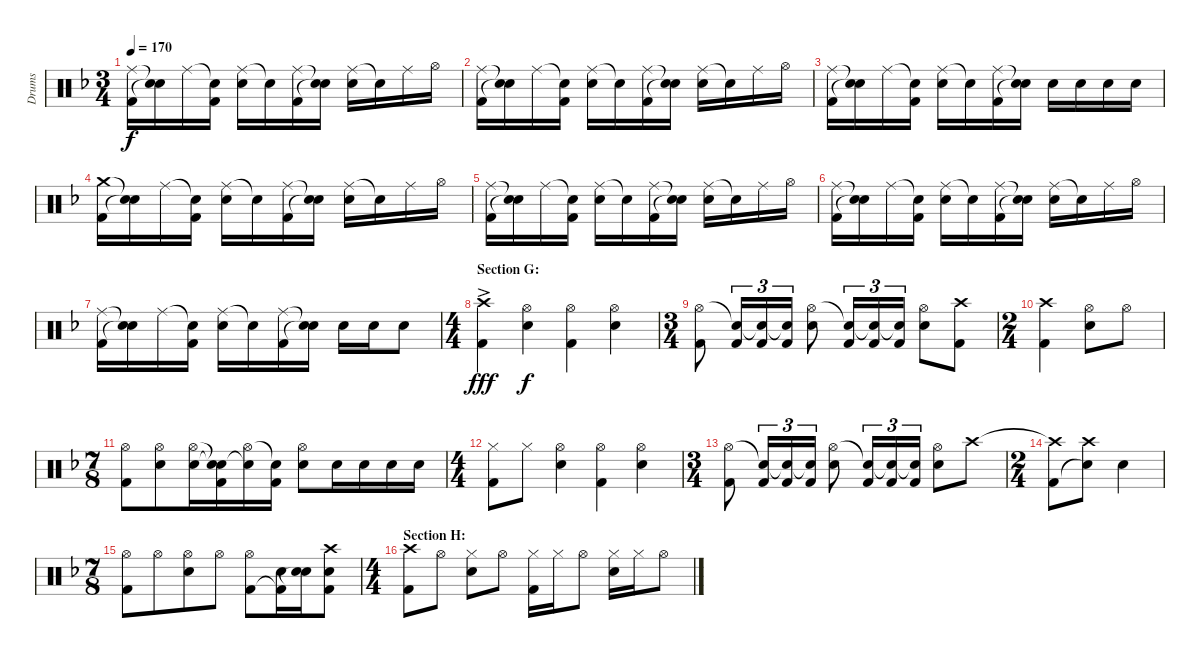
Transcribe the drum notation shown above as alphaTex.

\track ("Drums" "Drums") {instrument percussion}
\staff {score}
\articulation defaults
\ts (3 4)
\tempo 170
\clef neutral
\ks f
("Ride (middle)" "Kick (hit) 2").16{dy f} ("Snare (hit)"{t} "Snare (hit)"{t}).16 "Ride (middle)".16 ("Snare (hit)"{t} "Kick (hit) 2").16 ("Ride (middle)" "Snare (hit) 2").16 "Snare (hit)"{t}.16 ("Ride (middle)" "Kick (hit) 2").16 ("Snare (hit)"{t} "Snare (hit)"{t}).16 ("Ride (middle)" "Snare (hit) 2").16 "Snare (hit)"{t}.16 "Ride (middle)".16 "Hi-Hat (open)".16 |
("Ride (middle)" "Kick (hit) 2").16 ("Snare (hit)"{t} "Snare (hit)"{t}).16 "Ride (middle)".16 ("Snare (hit)"{t} "Kick (hit) 2").16 ("Ride (middle)" "Snare (hit) 2").16 "Snare (hit)"{t}.16 ("Ride (middle)" "Kick (hit) 2").16 ("Snare (hit)"{t} "Snare (hit)"{t}).16 ("Ride (middle)" "Snare (hit) 2").16 "Snare (hit)"{t}.16 "Ride (middle)".16 "Hi-Hat (open)".16 |
("Ride (middle)" "Kick (hit) 2").16 ("Snare (hit)"{t} "Snare (hit)"{t}).16 "Ride (middle)".16 ("Snare (hit)"{t} "Kick (hit) 2").16 ("Ride (middle)" "Snare (hit) 2").16 "Snare (hit)"{t}.16 ("Ride (middle)" "Kick (hit) 2").16 ("Snare (hit)"{t} "Snare (hit)"{t}).16 "Snare (hit) 2".16 "Snare (hit) 2".16 "Snare (hit) 2".16 "Snare (hit) 2".16 |
("Crash medium (hit)" "Kick (hit) 2").16 ("Snare (hit)"{t} "Snare (hit)"{t}).16 "Ride (middle)".16 ("Snare (hit)"{t} "Kick (hit) 2").16 ("Ride (middle)" "Snare (hit) 2").16 "Snare (hit)"{t}.16 ("Ride (middle)" "Kick (hit) 2").16 ("Snare (hit)"{t} "Snare (hit)"{t}).16 ("Ride (middle)" "Snare (hit) 2").16 "Snare (hit)"{t}.16 "Ride (middle)".16 "Hi-Hat (open)".16 |
("Ride (middle)" "Kick (hit) 2").16 ("Snare (hit)"{t} "Snare (hit)"{t}).16 "Ride (middle)".16 ("Snare (hit)"{t} "Kick (hit) 2").16 ("Ride (middle)" "Snare (hit) 2").16 "Snare (hit)"{t}.16 ("Ride (middle)" "Kick (hit) 2").16 ("Snare (hit)"{t} "Snare (hit)"{t}).16 ("Ride (middle)" "Snare (hit) 2").16 "Snare (hit)"{t}.16 "Ride (middle)".16 "Hi-Hat (open)".16 |
("Ride (middle)" "Kick (hit) 2").16 ("Snare (hit)"{t} "Snare (hit)"{t}).16 "Ride (middle)".16 ("Snare (hit)"{t} "Kick (hit) 2").16 ("Ride (middle)" "Snare (hit) 2").16 "Snare (hit)"{t}.16 ("Ride (middle)" "Kick (hit) 2").16 ("Snare (hit)"{t} "Snare (hit)"{t}).16 ("Ride (middle)" "Snare (hit) 2").16 "Snare (hit)"{t}.16 "Ride (middle)".16 "Hi-Hat (open)".16 |
("Ride (middle)" "Kick (hit) 2").16 ("Snare (hit)"{t} "Snare (hit)"{t}).16 "Ride (middle)".16 ("Snare (hit)"{t} "Kick (hit) 2").16 ("Ride (middle)" "Snare (hit) 2").16 "Snare (hit)"{t}.16 ("Ride (middle)" "Kick (hit) 2").16 ("Snare (hit)"{t} "Snare (hit)"{t}).16 "Snare (hit) 2".16 "Snare (hit) 2".16 "Snare (hit) 2".8 |
\ts (4 4)
\section ("" "Section G:")
("Crash high (hit)"{ac} "Kick (hit) 2").4{dy fff} ("Hi-Hat (open)" "Snare (hit) 2").4{dy f} ("Hi-Hat (open)" "Kick (hit) 2").4 ("Hi-Hat (open)" "Snare (hit) 2").4 |
\ts (3 4)
("Hi-Hat (open)" "Kick (hit) 2").8 ("Snare (hit)"{t} "Kick (hit) 2").16{tu (3 2)} ("Snare (hit)"{t} "Kick (hit) 2").16{tu (3 2)} ("Snare (hit)"{t} "Kick (hit) 2").16{tu (3 2)} ("Hi-Hat (open)" "Snare (hit) 2").8 ("Snare (hit)"{t} "Kick (hit) 2").16{tu (3 2)} ("Snare (hit)"{t} "Kick (hit) 2").16{tu (3 2)} ("Snare (hit)"{t} "Kick (hit) 2").16{tu (3 2)} ("Hi-Hat (open)" "Snare (hit) 2").8 ("Crash high (hit)" "Kick (hit) 2").8 |
\ts (2 4)
("Crash high (hit)" "Kick (hit) 2").4 ("Hi-Hat (open)" "Snare (hit) 2").8 "Hi-Hat (open)".8 |
\ts (7 8)
("Hi-Hat (open)" "Kick (hit) 2").8 ("Hi-Hat (open)" "Snare (hit) 2").8 ("Hi-Hat (open)" "Snare (hit) 2").16 ("Snare (hit)"{t} "Snare (hit)"{t} "Kick (hit) 2").16 ("Hi-Hat (open)" "Snare (hit)"{t}).16 ("Snare (hit)"{t} "Kick (hit) 2").16 ("Hi-Hat (open)" "Snare (hit) 2").8 "Snare (hit) 2".16 "Snare (hit) 2".16 "Snare (hit) 2".16 "Snare (hit) 2".16 |
\ts (4 4)
("Hi-Hat (closed)" "Kick (hit) 2").8 "Hi-Hat (closed)".8 ("Hi-Hat (open)" "Snare (hit) 2").4 ("Hi-Hat (open)" "Kick (hit) 2").4 ("Hi-Hat (open)" "Snare (hit) 2").4 |
\ts (3 4)
("Hi-Hat (open)" "Kick (hit) 2").8 ("Snare (hit)"{t} "Kick (hit) 2").16{tu (3 2)} ("Snare (hit)"{t} "Kick (hit) 2").16{tu (3 2)} ("Snare (hit)"{t} "Kick (hit) 2").16{tu (3 2)} ("Hi-Hat (open)" "Snare (hit) 2").8 ("Snare (hit)"{t} "Kick (hit) 2").16{tu (3 2)} ("Snare (hit)"{t} "Kick (hit) 2").16{tu (3 2)} ("Snare (hit)"{t} "Kick (hit) 2").16{tu (3 2)} ("Hi-Hat (open)" "Snare (hit) 2").8 "Crash high (hit)".8 |
\ts (2 4)
("Crash high (hit)"{t} "Kick (hit) 2").8 ("Crash high (hit)" "Snare (hit)"{t}).8 "Snare (hit) 2".4 |
\ts (7 8)
("Hi-Hat (open)" "Kick (hit) 2").8 "Hi-Hat (open)".8 ("Hi-Hat (open)" "Snare (hit) 2").8 "Hi-Hat (open)".8 ("Hi-Hat (open)" "Kick (hit) 2").8 ("Snare (hit) 2" "Kick (hit) 2"{t}).16 ("Snare (hit) 2" "Snare (hit)"{t}).16 ("Crash high (hit)" "Snare (hit) 2" "Kick (hit) 2").8 |
\ts (4 4)
\section ("" "Section H:")
("Crash high (hit)" "Kick (hit) 2").8 "Hi-Hat (open)".8 ("Hi-Hat (closed)" "Snare (hit) 2").8 "Hi-Hat (open)".8 ("Hi-Hat (closed)" "Kick (hit) 2").16 "Hi-Hat (closed)".16 "Hi-Hat (open)".8 ("Hi-Hat (closed)" "Snare (hit) 2").16 "Hi-Hat (closed)".16 "Hi-Hat (open)".8
